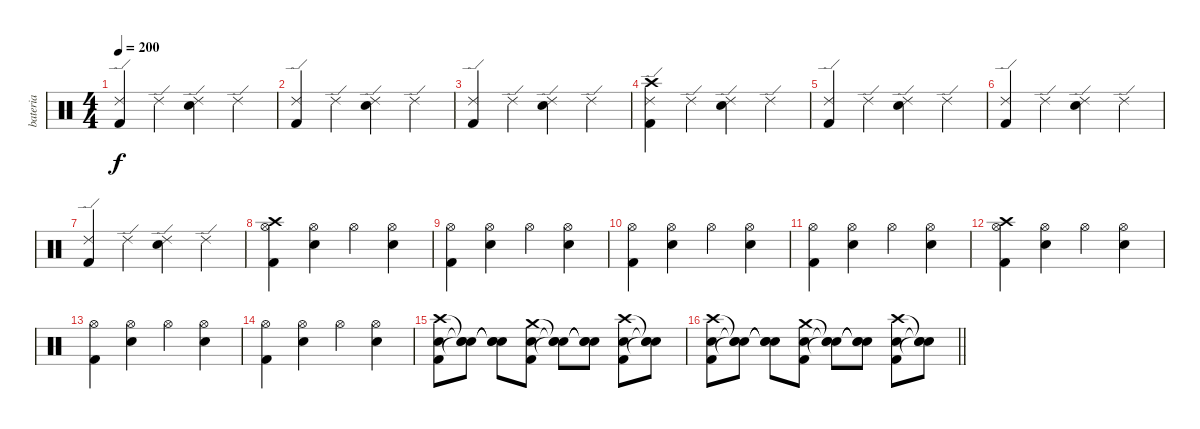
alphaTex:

\track ("bateria" "bateria") {instrument percussion}
\staff {score}
\articulation defaults
\ts (4 4)
\tempo 200
\clef neutral
\ks c
("Ride (edge) 2" "Kick (hit) 2").4{dy f} "Ride (edge) 2".4 ("Ride (edge) 2" "Electric Snare (hit)").4 "Ride (edge) 2".4 |
("Ride (edge) 2" "Kick (hit) 2").4 "Ride (edge) 2".4 ("Ride (edge) 2" "Electric Snare (hit)").4 "Ride (edge) 2".4 |
("Ride (edge) 2" "Kick (hit) 2").4 "Ride (edge) 2".4 ("Ride (edge) 2" "Electric Snare (hit)").4 "Ride (edge) 2".4 |
("Ride (edge) 2" "Kick (hit) 2" "Crash high (hit)").4 "Ride (edge) 2".4 ("Ride (edge) 2" "Electric Snare (hit)").4 "Ride (edge) 2".4 |
("Ride (edge) 2" "Kick (hit) 2").4 "Ride (edge) 2".4 ("Ride (edge) 2" "Electric Snare (hit)").4 "Ride (edge) 2".4 |
("Ride (edge) 2" "Kick (hit) 2").4 "Ride (edge) 2".4 ("Ride (edge) 2" "Electric Snare (hit)").4 "Ride (edge) 2".4 |
("Ride (edge) 2" "Kick (hit) 2").4 "Ride (edge) 2".4 ("Ride (edge) 2" "Electric Snare (hit)").4 "Ride (edge) 2".4 |
("Hi-Hat (open)" "Kick (hit) 2" "Crash high (hit)").4 ("Hi-Hat (open)" "Electric Snare (hit)").4 "Hi-Hat (open)".4 ("Hi-Hat (open)" "Electric Snare (hit)").4 |
("Hi-Hat (open)" "Kick (hit) 2").4 ("Hi-Hat (open)" "Electric Snare (hit)").4 "Hi-Hat (open)".4 ("Hi-Hat (open)" "Electric Snare (hit)").4 |
("Hi-Hat (open)" "Kick (hit) 2").4 ("Hi-Hat (open)" "Electric Snare (hit)").4 "Hi-Hat (open)".4 ("Hi-Hat (open)" "Electric Snare (hit)").4 |
("Hi-Hat (open)" "Kick (hit) 2").4 ("Hi-Hat (open)" "Electric Snare (hit)").4 "Hi-Hat (open)".4 ("Hi-Hat (open)" "Electric Snare (hit)").4 |
("Hi-Hat (open)" "Kick (hit) 2" "Crash high (hit)").4 ("Hi-Hat (open)" "Electric Snare (hit)").4 "Hi-Hat (open)".4 ("Hi-Hat (open)" "Electric Snare (hit)").4 |
("Hi-Hat (open)" "Kick (hit) 2").4 ("Hi-Hat (open)" "Electric Snare (hit)").4 "Hi-Hat (open)".4 ("Hi-Hat (open)" "Electric Snare (hit)").4 |
("Hi-Hat (open)" "Kick (hit) 2").4 ("Hi-Hat (open)" "Electric Snare (hit)").4 "Hi-Hat (open)".4 ("Hi-Hat (open)" "Electric Snare (hit)").4 |
("Electric Snare (hit)" "Kick (hit) 2" "Crash high (hit)").8 ("Snare (hit)"{t} "Snare (hit)"{t} "Snare (hit)"{t}).8 ("Snare (hit)"{t} "Snare (hit)"{t} "Snare (hit)"{t}).8 ("Electric Snare (hit)" "Kick (hit) 2" "Crash medium (hit)").8 ("Snare (hit)"{t} "Snare (hit)"{t} "Snare (hit)"{t}).8 ("Snare (hit)"{t} "Snare (hit)"{t} "Snare (hit)"{t}).8 ("Electric Snare (hit)" "Kick (hit) 2" "Crash high (hit)").8 ("Snare (hit)"{t} "Snare (hit)"{t} "Snare (hit)"{t}).8 |
\barLineRight lightlight
("Electric Snare (hit)" "Kick (hit) 2" "Crash high (hit)").8 ("Snare (hit)"{t} "Snare (hit)"{t} "Snare (hit)"{t}).8 ("Snare (hit)"{t} "Snare (hit)"{t} "Snare (hit)"{t}).8 ("Electric Snare (hit)" "Kick (hit) 2" "Crash medium (hit)").8 ("Snare (hit)"{t} "Snare (hit)"{t} "Snare (hit)"{t}).8 ("Snare (hit)"{t} "Snare (hit)"{t} "Snare (hit)"{t}).8 ("Electric Snare (hit)" "Kick (hit) 2" "Crash high (hit)").8 ("Snare (hit)"{t} "Snare (hit)"{t} "Snare (hit)"{t}).8
